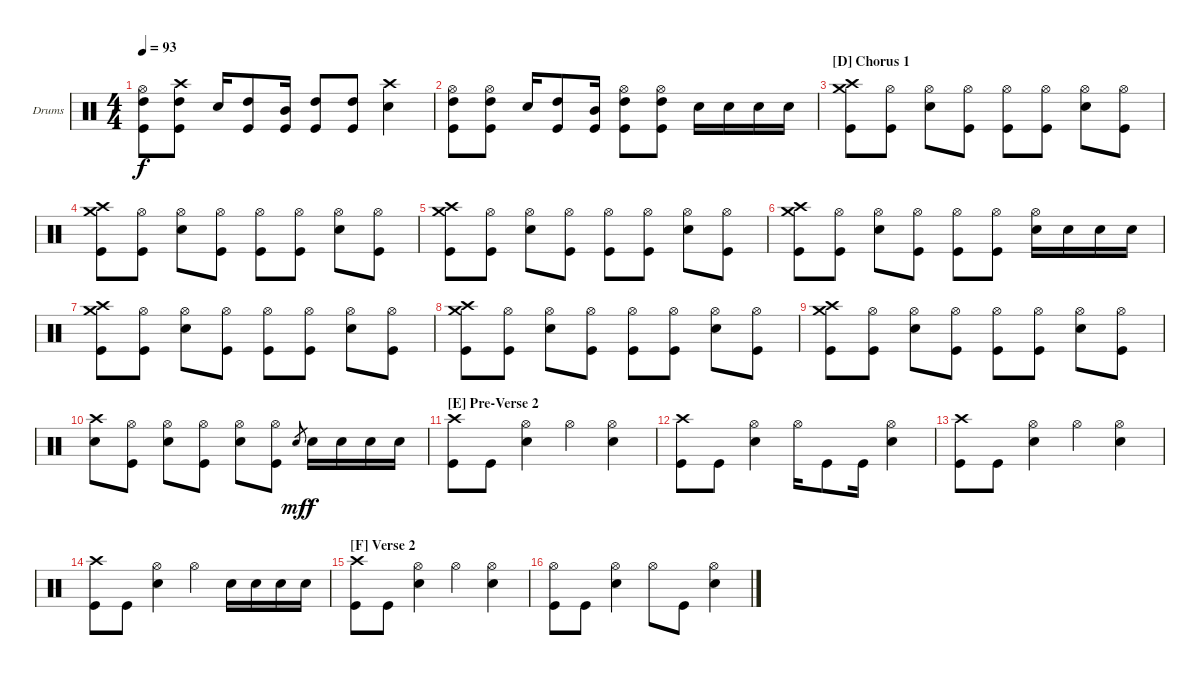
\bracketExtendMode groupsimilarinstruments
\firstSystemTrackNameOrientation horizontal
\otherSystemsTrackNameOrientation horizontal
\track ("Drums (Tony Palermo)" "Drums") {instrument percussion}
\staff {score}
\articulation defaults
\ts (4 4)
\tempo 93
\clef neutral
\ks c
("Hi-Hat (open)" "High Tom (hit)" "Kick (hit)").8{dy f} ("Crash high (hit)" "High Tom (hit)" "Kick (hit)").8 "Snare (hit) 2".16 ("High Tom (hit)" "Kick (hit)").8 ("Mid Tom (hit)" "Kick (hit)").16 ("High Tom (hit)" "Kick (hit)").8 ("High Tom (hit)" "Kick (hit)").8 ("Crash high (hit)" "Snare (hit) 2").4 |
("Hi-Hat (open)" "High Tom (hit)" "Kick (hit)").8 ("Hi-Hat (open)" "High Tom (hit)" "Kick (hit)").8 "Snare (hit) 2".16 ("High Tom (hit)" "Kick (hit)").8 ("Mid Tom (hit)" "Kick (hit)").16 ("High Tom (hit)" "Kick (hit)" "Hi-Hat (open)").8 ("High Tom (hit)" "Kick (hit)" "Hi-Hat (open)").8 "Snare (hit) 2".16 "Snare (hit) 2".16 "Snare (hit) 2".16 "Snare (hit) 2".16 |
\section ("D" "Chorus 1")
("Crash medium (hit)" "Crash high (hit)" "Kick (hit)").8 ("Hi-Hat (open)" "Kick (hit)").8 ("Hi-Hat (open)" "Snare (hit) 2").8 ("Hi-Hat (open)" "Kick (hit)").8 ("Hi-Hat (open)" "Kick (hit)").8 ("Hi-Hat (open)" "Kick (hit)").8 ("Hi-Hat (open)" "Snare (hit) 2").8 ("Hi-Hat (open)" "Kick (hit)").8 |
("Crash medium (hit)" "Crash high (hit)" "Kick (hit)").8 ("Hi-Hat (open)" "Kick (hit)").8 ("Hi-Hat (open)" "Snare (hit) 2").8 ("Hi-Hat (open)" "Kick (hit)").8 ("Hi-Hat (open)" "Kick (hit)").8 ("Hi-Hat (open)" "Kick (hit)").8 ("Hi-Hat (open)" "Snare (hit) 2").8 ("Hi-Hat (open)" "Kick (hit)").8 |
("Crash medium (hit)" "Crash high (hit)" "Kick (hit)").8 ("Hi-Hat (open)" "Kick (hit)").8 ("Hi-Hat (open)" "Snare (hit) 2").8 ("Hi-Hat (open)" "Kick (hit)").8 ("Hi-Hat (open)" "Kick (hit)").8 ("Hi-Hat (open)" "Kick (hit)").8 ("Hi-Hat (open)" "Snare (hit) 2").8 ("Hi-Hat (open)" "Kick (hit)").8 |
("Crash medium (hit)" "Crash high (hit)" "Kick (hit)").8 ("Hi-Hat (open)" "Kick (hit)").8 ("Hi-Hat (open)" "Snare (hit) 2").8 ("Hi-Hat (open)" "Kick (hit)").8 ("Hi-Hat (open)" "Kick (hit)").8 ("Hi-Hat (open)" "Kick (hit)").8 ("Hi-Hat (open)" "Snare (hit) 2").16 "Snare (hit) 2".16 "Snare (hit) 2".16 "Snare (hit) 2".16 |
("Crash medium (hit)" "Crash high (hit)" "Kick (hit)").8 ("Hi-Hat (open)" "Kick (hit)").8 ("Hi-Hat (open)" "Snare (hit) 2").8 ("Hi-Hat (open)" "Kick (hit)").8 ("Hi-Hat (open)" "Kick (hit)").8 ("Hi-Hat (open)" "Kick (hit)").8 ("Hi-Hat (open)" "Snare (hit) 2").8 ("Hi-Hat (open)" "Kick (hit)").8 |
("Crash medium (hit)" "Crash high (hit)" "Kick (hit)").8 ("Hi-Hat (open)" "Kick (hit)").8 ("Hi-Hat (open)" "Snare (hit) 2").8 ("Hi-Hat (open)" "Kick (hit)").8 ("Hi-Hat (open)" "Kick (hit)").8 ("Hi-Hat (open)" "Kick (hit)").8 ("Hi-Hat (open)" "Snare (hit) 2").8 ("Hi-Hat (open)" "Kick (hit)").8 |
("Crash medium (hit)" "Crash high (hit)" "Kick (hit)").8 ("Hi-Hat (open)" "Kick (hit)").8 ("Hi-Hat (open)" "Snare (hit) 2").8 ("Hi-Hat (open)" "Kick (hit)").8 ("Hi-Hat (open)" "Kick (hit)").8 ("Hi-Hat (open)" "Kick (hit)").8 ("Hi-Hat (open)" "Snare (hit) 2").8 ("Hi-Hat (open)" "Kick (hit)").8 |
("Crash high (hit)" "Snare (hit) 2").8 ("Hi-Hat (open)" "Kick (hit)").8 ("Hi-Hat (open)" "Snare (hit) 2").8 ("Hi-Hat (open)" "Kick (hit)").8 ("Hi-Hat (open)" "Snare (hit) 2").8 ("Hi-Hat (open)" "Kick (hit)").8 "Snare (hit) 2".8{gr dy mf} "Snare (hit) 2".16{dy f} "Snare (hit) 2".16 "Snare (hit) 2".16 "Snare (hit) 2".16 |
\section ("E" "Pre-Verse 2")
("Crash high (hit)" "Kick (hit)").8 "Kick (hit)".8 ("Hi-Hat (open)" "Snare (hit) 2").4 "Hi-Hat (open)".4 ("Hi-Hat (open)" "Snare (hit) 2").4 |
("Crash high (hit)" "Kick (hit)").8 "Kick (hit)".8 ("Hi-Hat (open)" "Snare (hit) 2").4 "Hi-Hat (open)".16 "Kick (hit)".8 "Kick (hit)".16 ("Hi-Hat (open)" "Snare (hit) 2").4 |
("Crash high (hit)" "Kick (hit)").8 "Kick (hit)".8 ("Hi-Hat (open)" "Snare (hit) 2").4 "Hi-Hat (open)".4 ("Hi-Hat (open)" "Snare (hit) 2").4 |
("Crash high (hit)" "Kick (hit)").8 "Kick (hit)".8 ("Hi-Hat (open)" "Snare (hit) 2").4 "Hi-Hat (open)".4 "Snare (hit) 2".16 "Snare (hit) 2".16 "Snare (hit) 2".16 "Snare (hit) 2".16 |
\section ("F" "Verse 2")
("Crash high (hit)" "Kick (hit)").8 "Kick (hit)".8 ("Hi-Hat (open)" "Snare (hit) 2").4 "Hi-Hat (open)".4 ("Hi-Hat (open)" "Snare (hit) 2").4 |
("Hi-Hat (open)" "Kick (hit)").8 "Kick (hit)".8 ("Hi-Hat (open)" "Snare (hit) 2").4 "Hi-Hat (open)".8 "Kick (hit)".8 ("Hi-Hat (open)" "Snare (hit) 2").4
